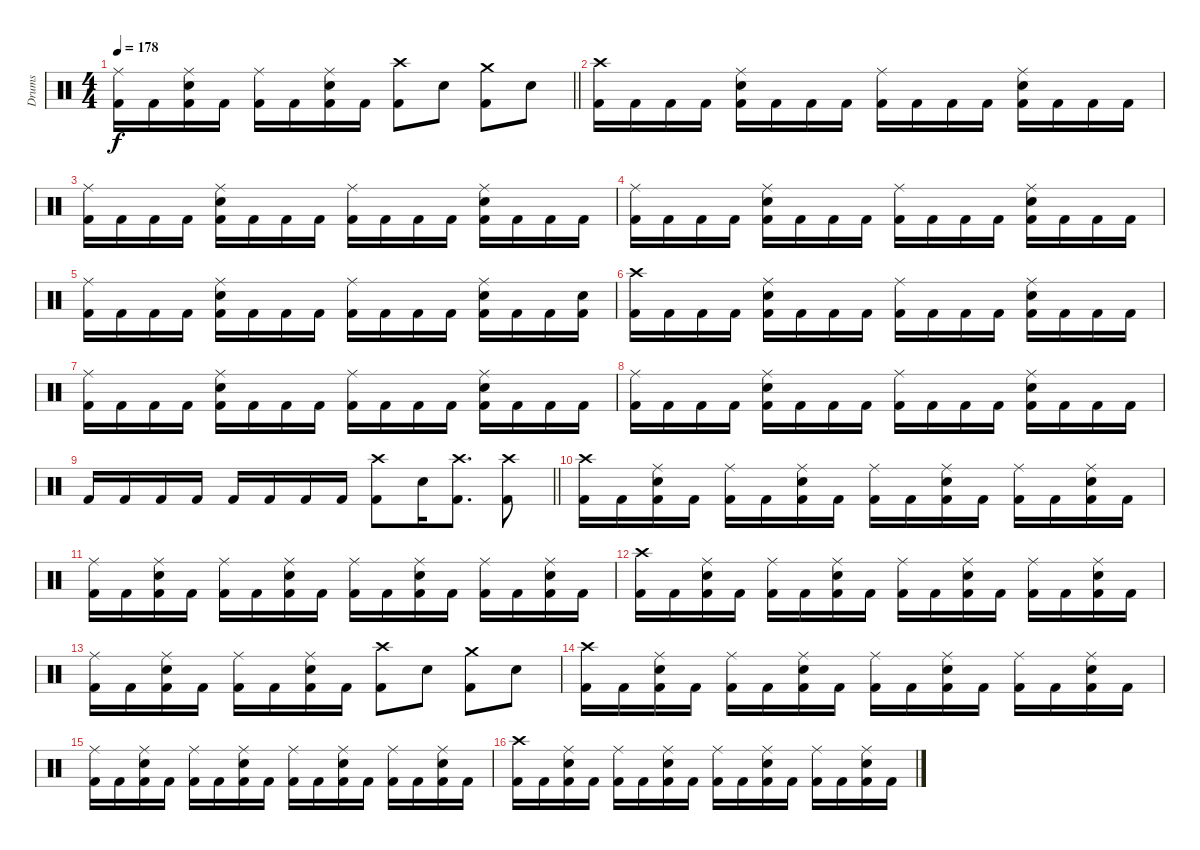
\track ("Drums" "Drums") {instrument percussion}
\staff {score}
\articulation defaults
\ts (4 4)
\tempo 178
\clef neutral
\barLineRight lightlight
\ks c
("Ride (middle)" "Kick (hit) 2").16{dy f} "Kick (hit) 2".16 ("Ride (middle)" "Snare (hit) 2" "Kick (hit) 2").16 "Kick (hit) 2".16 ("Ride (middle)" "Kick (hit) 2").16 "Kick (hit) 2".16 ("Ride (middle)" "Snare (hit) 2" "Kick (hit) 2").16 "Kick (hit) 2".16 ("Crash high (hit)" "Kick (hit) 2").8 "Electric Snare (hit)".8 ("Crash medium (hit)" "Kick (hit) 2").8 "Electric Snare (hit)".8 |
("Crash high (hit)" "Kick (hit) 2").16 "Kick (hit) 2".16 "Kick (hit) 2".16 "Kick (hit) 2".16 ("Ride (middle)" "Snare (hit) 2" "Kick (hit) 2").16 "Kick (hit) 2".16 "Kick (hit) 2".16 "Kick (hit) 2".16 ("Ride (middle)" "Kick (hit) 2").16 "Kick (hit) 2".16 "Kick (hit) 2".16 "Kick (hit) 2".16 ("Ride (middle)" "Snare (hit) 2" "Kick (hit) 2").16 "Kick (hit) 2".16 "Kick (hit) 2".16 "Kick (hit) 2".16 |
("Ride (middle)" "Kick (hit) 2").16 "Kick (hit) 2".16 "Kick (hit) 2".16 "Kick (hit) 2".16 ("Ride (middle)" "Snare (hit) 2" "Kick (hit) 2").16 "Kick (hit) 2".16 "Kick (hit) 2".16 "Kick (hit) 2".16 ("Ride (middle)" "Kick (hit) 2").16 "Kick (hit) 2".16 "Kick (hit) 2".16 "Kick (hit) 2".16 ("Ride (middle)" "Snare (hit) 2" "Kick (hit) 2").16 "Kick (hit) 2".16 "Kick (hit) 2".16 "Kick (hit) 2".16 |
("Ride (middle)" "Kick (hit) 2").16 "Kick (hit) 2".16 "Kick (hit) 2".16 "Kick (hit) 2".16 ("Ride (middle)" "Snare (hit) 2" "Kick (hit) 2").16 "Kick (hit) 2".16 "Kick (hit) 2".16 "Kick (hit) 2".16 ("Ride (middle)" "Kick (hit) 2").16 "Kick (hit) 2".16 "Kick (hit) 2".16 "Kick (hit) 2".16 ("Ride (middle)" "Snare (hit) 2" "Kick (hit) 2").16 "Kick (hit) 2".16 "Kick (hit) 2".16 "Kick (hit) 2".16 |
("Ride (middle)" "Kick (hit) 2").16 "Kick (hit) 2".16 "Kick (hit) 2".16 "Kick (hit) 2".16 ("Ride (middle)" "Snare (hit) 2" "Kick (hit) 2").16 "Kick (hit) 2".16 "Kick (hit) 2".16 "Kick (hit) 2".16 ("Ride (middle)" "Kick (hit) 2").16 "Kick (hit) 2".16 "Kick (hit) 2".16 "Kick (hit) 2".16 ("Ride (middle)" "Snare (hit) 2" "Kick (hit) 2").16 "Kick (hit) 2".16 "Kick (hit) 2".16 ("Snare (hit) 2" "Kick (hit) 2").16 |
("Crash high (hit)" "Kick (hit) 2").16 "Kick (hit) 2".16 "Kick (hit) 2".16 "Kick (hit) 2".16 ("Ride (middle)" "Snare (hit) 2" "Kick (hit) 2").16 "Kick (hit) 2".16 "Kick (hit) 2".16 "Kick (hit) 2".16 ("Ride (middle)" "Kick (hit) 2").16 "Kick (hit) 2".16 "Kick (hit) 2".16 "Kick (hit) 2".16 ("Ride (middle)" "Snare (hit) 2" "Kick (hit) 2").16 "Kick (hit) 2".16 "Kick (hit) 2".16 "Kick (hit) 2".16 |
("Ride (middle)" "Kick (hit) 2").16 "Kick (hit) 2".16 "Kick (hit) 2".16 "Kick (hit) 2".16 ("Ride (middle)" "Snare (hit) 2" "Kick (hit) 2").16 "Kick (hit) 2".16 "Kick (hit) 2".16 "Kick (hit) 2".16 ("Ride (middle)" "Kick (hit) 2").16 "Kick (hit) 2".16 "Kick (hit) 2".16 "Kick (hit) 2".16 ("Ride (middle)" "Snare (hit) 2" "Kick (hit) 2").16 "Kick (hit) 2".16 "Kick (hit) 2".16 "Kick (hit) 2".16 |
("Ride (middle)" "Kick (hit) 2").16 "Kick (hit) 2".16 "Kick (hit) 2".16 "Kick (hit) 2".16 ("Ride (middle)" "Snare (hit) 2" "Kick (hit) 2").16 "Kick (hit) 2".16 "Kick (hit) 2".16 "Kick (hit) 2".16 ("Ride (middle)" "Kick (hit) 2").16 "Kick (hit) 2".16 "Kick (hit) 2".16 "Kick (hit) 2".16 ("Ride (middle)" "Snare (hit) 2" "Kick (hit) 2").16 "Kick (hit) 2".16 "Kick (hit) 2".16 "Kick (hit) 2".16 |
\barLineRight lightlight "Kick (hit) 2".16 "Kick (hit) 2".16 "Kick (hit) 2".16 "Kick (hit) 2".16 "Kick (hit) 2".16 "Kick (hit) 2".16 "Kick (hit) 2".16 "Kick (hit) 2".16
("Crash high (hit)" "Kick (hit) 2").8 "Snare (hit) 2".16 ("Crash high (hit)" "Kick (hit) 2").8{d} ("Crash high (hit)" "Kick (hit) 2").8 |
("Crash high (hit)" "Kick (hit) 2").16 "Kick (hit) 2".16 ("Ride (middle)" "Snare (hit) 2" "Kick (hit) 2").16 "Kick (hit) 2".16 ("Ride (middle)" "Kick (hit) 2").16 "Kick (hit) 2".16 ("Ride (middle)" "Snare (hit) 2" "Kick (hit) 2").16 "Kick (hit) 2".16 ("Ride (middle)" "Kick (hit) 2").16 "Kick (hit) 2".16 ("Ride (middle)" "Snare (hit) 2" "Kick (hit) 2").16 "Kick (hit) 2".16 ("Ride (middle)" "Kick (hit) 2").16 "Kick (hit) 2".16 ("Ride (middle)" "Snare (hit) 2" "Kick (hit) 2").16 "Kick (hit) 2".16 |
("Ride (middle)" "Kick (hit) 2").16 "Kick (hit) 2".16 ("Ride (middle)" "Snare (hit) 2" "Kick (hit) 2").16 "Kick (hit) 2".16 ("Ride (middle)" "Kick (hit) 2").16 "Kick (hit) 2".16 ("Ride (middle)" "Snare (hit) 2" "Kick (hit) 2").16 "Kick (hit) 2".16 ("Ride (middle)" "Kick (hit) 2").16 "Kick (hit) 2".16 ("Ride (middle)" "Snare (hit) 2" "Kick (hit) 2").16 "Kick (hit) 2".16 ("Ride (middle)" "Kick (hit) 2").16 "Kick (hit) 2".16 ("Ride (middle)" "Snare (hit) 2" "Kick (hit) 2").16 "Kick (hit) 2".16 |
("Crash high (hit)" "Kick (hit) 2").16 "Kick (hit) 2".16 ("Ride (middle)" "Snare (hit) 2" "Kick (hit) 2").16 "Kick (hit) 2".16 ("Ride (middle)" "Kick (hit) 2").16 "Kick (hit) 2".16 ("Ride (middle)" "Snare (hit) 2" "Kick (hit) 2").16 "Kick (hit) 2".16 ("Ride (middle)" "Kick (hit) 2").16 "Kick (hit) 2".16 ("Ride (middle)" "Snare (hit) 2" "Kick (hit) 2").16 "Kick (hit) 2".16 ("Ride (middle)" "Kick (hit) 2").16 "Kick (hit) 2".16 ("Ride (middle)" "Snare (hit) 2" "Kick (hit) 2").16 "Kick (hit) 2".16 |
("Ride (middle)" "Kick (hit) 2").16 "Kick (hit) 2".16 ("Ride (middle)" "Snare (hit) 2" "Kick (hit) 2").16 "Kick (hit) 2".16 ("Ride (middle)" "Kick (hit) 2").16 "Kick (hit) 2".16 ("Ride (middle)" "Snare (hit) 2" "Kick (hit) 2").16 "Kick (hit) 2".16 ("Crash high (hit)" "Kick (hit) 2").8 "Electric Snare (hit)".8 ("Crash medium (hit)" "Kick (hit) 2").8 "Electric Snare (hit)".8 |
("Crash high (hit)" "Kick (hit) 2").16 "Kick (hit) 2".16 ("Ride (middle)" "Snare (hit) 2" "Kick (hit) 2").16 "Kick (hit) 2".16 ("Ride (middle)" "Kick (hit) 2").16 "Kick (hit) 2".16 ("Ride (middle)" "Snare (hit) 2" "Kick (hit) 2").16 "Kick (hit) 2".16 ("Ride (middle)" "Kick (hit) 2").16 "Kick (hit) 2".16 ("Ride (middle)" "Snare (hit) 2" "Kick (hit) 2").16 "Kick (hit) 2".16 ("Ride (middle)" "Kick (hit) 2").16 "Kick (hit) 2".16 ("Ride (middle)" "Snare (hit) 2" "Kick (hit) 2").16 "Kick (hit) 2".16 |
("Ride (middle)" "Kick (hit) 2").16 "Kick (hit) 2".16 ("Ride (middle)" "Snare (hit) 2" "Kick (hit) 2").16 "Kick (hit) 2".16 ("Ride (middle)" "Kick (hit) 2").16 "Kick (hit) 2".16 ("Ride (middle)" "Snare (hit) 2" "Kick (hit) 2").16 "Kick (hit) 2".16 ("Ride (middle)" "Kick (hit) 2").16 "Kick (hit) 2".16 ("Ride (middle)" "Snare (hit) 2" "Kick (hit) 2").16 "Kick (hit) 2".16 ("Ride (middle)" "Kick (hit) 2").16 "Kick (hit) 2".16 ("Ride (middle)" "Snare (hit) 2" "Kick (hit) 2").16 "Kick (hit) 2".16 |
("Crash high (hit)" "Kick (hit) 2").16 "Kick (hit) 2".16 ("Ride (middle)" "Snare (hit) 2" "Kick (hit) 2").16 "Kick (hit) 2".16 ("Ride (middle)" "Kick (hit) 2").16 "Kick (hit) 2".16 ("Ride (middle)" "Snare (hit) 2" "Kick (hit) 2").16 "Kick (hit) 2".16 ("Ride (middle)" "Kick (hit) 2").16 "Kick (hit) 2".16 ("Ride (middle)" "Snare (hit) 2" "Kick (hit) 2").16 "Kick (hit) 2".16 ("Ride (middle)" "Kick (hit) 2").16 "Kick (hit) 2".16 ("Ride (middle)" "Snare (hit) 2" "Kick (hit) 2").16 "Kick (hit) 2".16
